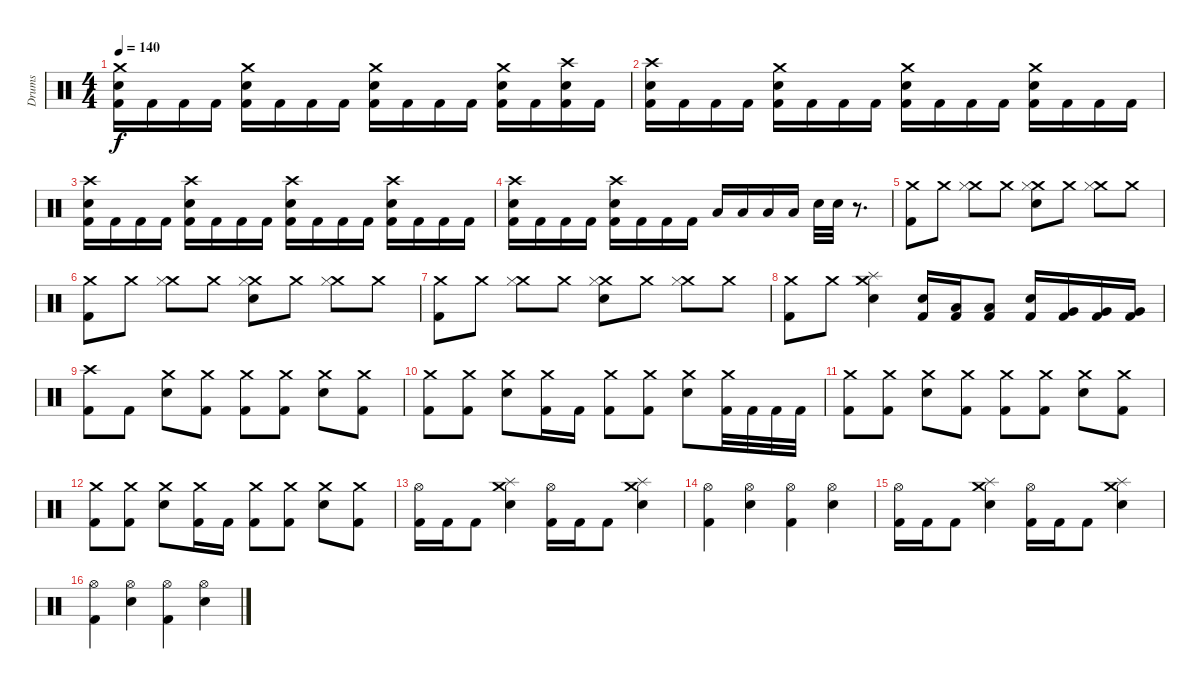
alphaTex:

\track ("Drums" "Drums") {instrument percussion}
\staff {score}
\articulation defaults
\ts (4 4)
\tempo 140
\clef neutral
\ks c
("Crash medium (hit)" "Snare (hit) 2" "Kick (hit) 2").16{dy f} "Kick (hit) 2".16 "Kick (hit) 2".16 "Kick (hit) 2".16 ("Crash medium (hit)" "Snare (hit) 2" "Kick (hit) 2").16 "Kick (hit) 2".16 "Kick (hit) 2".16 "Kick (hit) 2".16 ("Crash medium (hit)" "Snare (hit) 2" "Kick (hit) 2").16 "Kick (hit) 2".16 "Kick (hit) 2".16 "Kick (hit) 2".16 ("Crash medium (hit)" "Snare (hit) 2" "Kick (hit) 2").16 "Kick (hit) 2".16 ("Crash high (hit)" "Snare (hit) 2" "Kick (hit) 2").16 "Kick (hit) 2".16 |
("Crash high (hit)" "Snare (hit) 2" "Kick (hit) 2").16 "Kick (hit) 2".16 "Kick (hit) 2".16 "Kick (hit) 2".16 ("Crash medium (hit)" "Snare (hit) 2" "Kick (hit) 2").16 "Kick (hit) 2".16 "Kick (hit) 2".16 "Kick (hit) 2".16 ("Crash medium (hit)" "Snare (hit) 2" "Kick (hit) 2").16 "Kick (hit) 2".16 "Kick (hit) 2".16 "Kick (hit) 2".16 ("Crash medium (hit)" "Snare (hit) 2" "Kick (hit) 2").16 "Kick (hit) 2".16 "Kick (hit) 2".16 "Kick (hit) 2".16 |
("Crash high (hit)" "Snare (hit) 2" "Kick (hit) 2").16 "Kick (hit) 2".16 "Kick (hit) 2".16 "Kick (hit) 2".16 ("Crash high (hit)" "Snare (hit) 2" "Kick (hit) 2").16 "Kick (hit) 2".16 "Kick (hit) 2".16 "Kick (hit) 2".16 ("Crash high (hit)" "Snare (hit) 2" "Kick (hit) 2").16 "Kick (hit) 2".16 "Kick (hit) 2".16 "Kick (hit) 2".16 ("Crash high (hit)" "Snare (hit) 2" "Kick (hit) 2").16 "Kick (hit) 2".16 "Kick (hit) 2".16 "Kick (hit) 2".16 |
("Crash high (hit)" "Snare (hit) 2" "Kick (hit) 2").16 "Kick (hit) 2".16 "Kick (hit) 2".16 "Kick (hit) 2".16 ("Crash high (hit)" "Snare (hit) 2" "Kick (hit) 2").16 "Kick (hit) 2".16 "Kick (hit) 2".16 "Kick (hit) 2".16 "Low Tom (hit)".16 "Low Tom (hit)".16 "Low Tom (hit)".16 "Low Tom (hit)".16 "Snare (hit) 2".32 "Snare (hit) 2".32 r.8{d} |
("Crash medium (hit)" "Kick (hit) 2").8 "Crash medium (hit)".8 ("Crash medium (hit)" "Hi-Hat (closed)").8 "Crash medium (hit)".8 ("Crash medium (hit)" "Hi-Hat (closed)" "Snare (hit) 2").8 "Crash medium (hit)".8 ("Crash medium (hit)" "Hi-Hat (closed)").8 "Crash medium (hit)".8 |
("Crash medium (hit)" "Kick (hit) 2").8 "Crash medium (hit)".8 ("Crash medium (hit)" "Hi-Hat (closed)").8 "Crash medium (hit)".8 ("Crash medium (hit)" "Hi-Hat (closed)" "Snare (hit) 2").8 "Crash medium (hit)".8 ("Crash medium (hit)" "Hi-Hat (closed)").8 "Crash medium (hit)".8 |
("Crash medium (hit)" "Kick (hit) 2").8 "Crash medium (hit)".8 ("Crash medium (hit)" "Hi-Hat (closed)").8 "Crash medium (hit)".8 ("Crash medium (hit)" "Hi-Hat (closed)" "Snare (hit) 2").8 "Crash medium (hit)".8 ("Crash medium (hit)" "Hi-Hat (closed)").8 "Crash medium (hit)".8 |
("Crash medium (hit)" "Kick (hit) 2").8 "Crash medium (hit)".8 ("Crash medium (hit)" "Splash (hit)" "Snare (hit) 2").4 ("Snare (hit) 2" "Kick (hit) 2").16 ("Low Tom (hit)" "Kick (hit) 2").16 ("Low Tom (hit)" "Kick (hit) 2").8 ("Snare (hit) 2" "Kick (hit) 2").16 ("Very Low Tom (hit)" "Kick (hit) 2").16 ("Very Low Tom (hit)" "Kick (hit) 2").16 ("Very Low Tom (hit)" "Kick (hit) 2").16 |
("Crash high (hit)" "Kick (hit) 2").8 "Kick (hit) 2".8 ("Crash medium (hit)" "Snare (hit) 2").8 ("Crash medium (hit)" "Kick (hit) 2").8 ("Crash medium (hit)" "Kick (hit) 2").8 ("Crash medium (hit)" "Kick (hit) 2").8 ("Crash medium (hit)" "Snare (hit) 2").8 ("Crash medium (hit)" "Kick (hit) 2").8 |
("Crash medium (hit)" "Kick (hit) 2").8 ("Crash medium (hit)" "Kick (hit) 2").8 ("Crash medium (hit)" "Snare (hit) 2").8 ("Crash medium (hit)" "Kick (hit) 2").16 "Kick (hit) 2".16 ("Crash medium (hit)" "Kick (hit) 2").8 ("Crash medium (hit)" "Kick (hit) 2").8 ("Crash medium (hit)" "Snare (hit) 2").8 ("Crash medium (hit)" "Kick (hit) 2").32 "Kick (hit) 2".32 "Kick (hit) 2".32 "Kick (hit) 2".32 |
("Crash medium (hit)" "Kick (hit) 2").8 ("Crash medium (hit)" "Kick (hit) 2").8 ("Crash medium (hit)" "Snare (hit) 2").8 ("Crash medium (hit)" "Kick (hit) 2").8 ("Crash medium (hit)" "Kick (hit) 2").8 ("Crash medium (hit)" "Kick (hit) 2").8 ("Crash medium (hit)" "Snare (hit) 2").8 ("Crash medium (hit)" "Kick (hit) 2").8 |
("Crash medium (hit)" "Kick (hit) 2").8 ("Crash medium (hit)" "Kick (hit) 2").8 ("Crash medium (hit)" "Snare (hit) 2").8 ("Crash medium (hit)" "Kick (hit) 2").16 "Kick (hit) 2".16 ("Crash medium (hit)" "Kick (hit) 2").8 ("Crash medium (hit)" "Kick (hit) 2").8 ("Crash medium (hit)" "Snare (hit) 2").8 ("Crash medium (hit)" "Kick (hit) 2").8 |
("Hi-Hat (open)" "Kick (hit) 2").16 "Kick (hit) 2".16 "Kick (hit) 2".8 ("Crash medium (hit)" "Splash (hit)" "Snare (hit) 2").4 ("Hi-Hat (open)" "Kick (hit) 2").16 "Kick (hit) 2".16 "Kick (hit) 2".8 ("Crash medium (hit)" "Splash (hit)" "Snare (hit) 2").4 |
("Hi-Hat (open)" "Kick (hit) 2").4 ("Hi-Hat (open)" "Snare (hit) 2").4 ("Hi-Hat (open)" "Kick (hit) 2").4 ("Hi-Hat (open)" "Snare (hit) 2").4 |
("Hi-Hat (open)" "Kick (hit) 2").16 "Kick (hit) 2".16 "Kick (hit) 2".8 ("Crash medium (hit)" "Splash (hit)" "Snare (hit) 2").4 ("Hi-Hat (open)" "Kick (hit) 2").16 "Kick (hit) 2".16 "Kick (hit) 2".8 ("Crash medium (hit)" "Splash (hit)" "Snare (hit) 2").4 |
("Hi-Hat (open)" "Kick (hit) 2").4 ("Hi-Hat (open)" "Snare (hit) 2").4 ("Hi-Hat (open)" "Kick (hit) 2").4 ("Hi-Hat (open)" "Snare (hit) 2").4
